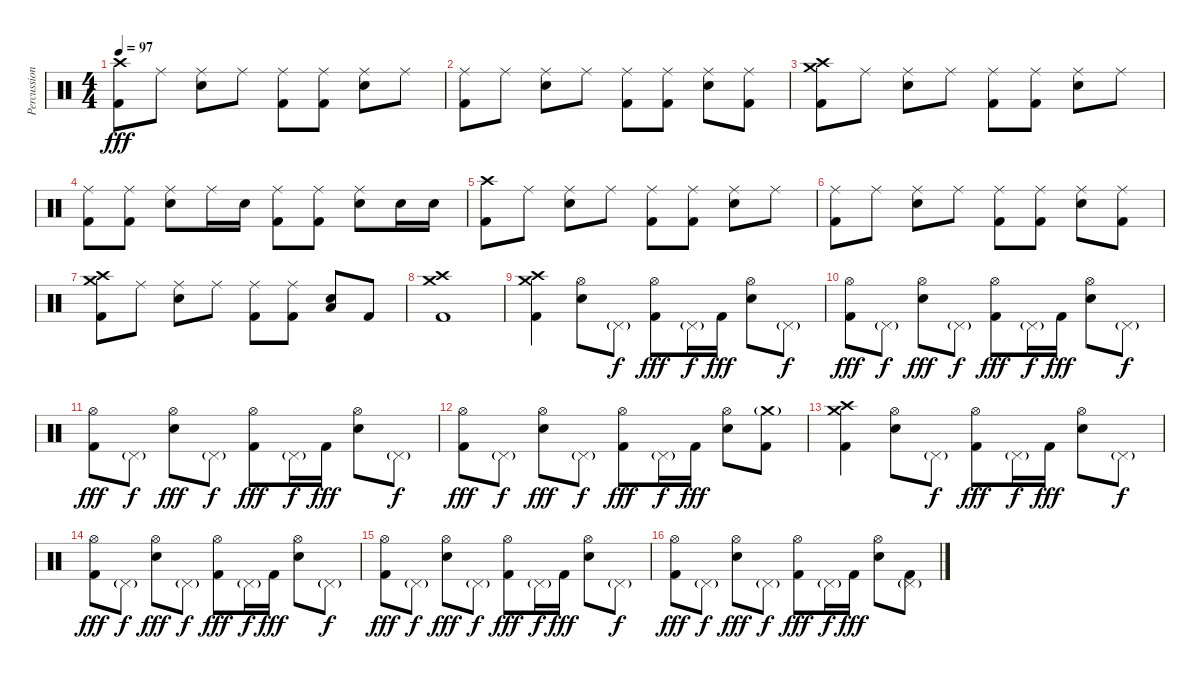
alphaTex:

\track ("Percussion" "Percussion") {instrument percussion}
\staff {score}
\articulation defaults
\ts (4 4)
\tempo 97
\clef neutral
\ks c
("Crash high (hit)" "Kick (hit) 2").8{dy fff} "Ride (middle)".8 ("Ride (middle)" "Electric Snare (hit)").8 "Ride (middle)".8 ("Ride (middle)" "Kick (hit) 2").8 ("Ride (middle)" "Kick (hit) 2").8 ("Ride (middle)" "Electric Snare (hit)").8 "Ride (middle)".8 |
("Ride (middle)" "Kick (hit) 2").8 "Ride (middle)".8 ("Ride (middle)" "Electric Snare (hit)").8 "Ride (middle)".8 ("Ride (middle)" "Kick (hit) 2").8 ("Ride (middle)" "Kick (hit) 2").8 ("Ride (middle)" "Electric Snare (hit)").8 ("Ride (middle)" "Kick (hit) 2").8 |
("Crash high (hit)" "Crash medium (hit)" "Kick (hit) 2").8 "Ride (middle)".8 ("Ride (middle)" "Electric Snare (hit)").8 "Ride (middle)".8 ("Ride (middle)" "Kick (hit) 2").8 ("Ride (middle)" "Kick (hit) 2").8 ("Ride (middle)" "Electric Snare (hit)").8 "Ride (middle)".8 |
("Ride (middle)" "Kick (hit) 2").8 ("Ride (middle)" "Kick (hit) 2").8 ("Ride (middle)" "Electric Snare (hit)").8 "Ride (middle)".16 "Electric Snare (hit)".16 ("Ride (middle)" "Kick (hit) 2").8 ("Ride (middle)" "Kick (hit) 2").8 ("Ride (middle)" "Electric Snare (hit)").8 "Electric Snare (hit)".16 "Electric Snare (hit)".16 |
("Crash high (hit)" "Kick (hit) 2").8 "Ride (middle)".8 ("Ride (middle)" "Electric Snare (hit)").8 "Ride (middle)".8 ("Ride (middle)" "Kick (hit) 2").8 ("Ride (middle)" "Kick (hit) 2").8 ("Ride (middle)" "Electric Snare (hit)").8 "Ride (middle)".8 |
("Ride (middle)" "Kick (hit) 2").8 "Ride (middle)".8 ("Ride (middle)" "Electric Snare (hit)").8 "Ride (middle)".8 ("Ride (middle)" "Kick (hit) 2").8 ("Ride (middle)" "Kick (hit) 2").8 ("Ride (middle)" "Electric Snare (hit)").8 ("Ride (middle)" "Kick (hit) 2").8 |
("Crash high (hit)" "Crash medium (hit)" "Kick (hit) 2").8 "Ride (middle)".8 ("Ride (middle)" "Electric Snare (hit)").8 "Ride (middle)".8 ("Ride (middle)" "Kick (hit) 2").8 ("Ride (middle)" "Kick (hit) 2").8 ("Electric Snare (hit)" "Low Floor Tom (hit)").8 "Kick (hit) 2".8 |
("Crash high (hit)" "Crash medium (hit)" "Kick (hit) 2").1 |
("Crash medium (hit)" "Crash high (hit)" "Kick (hit) 2").4 ("Hi-Hat (open)" "Electric Snare (hit)").8 "Pedal Hi-Hat (hit)"{g}.8{dy f} ("Hi-Hat (open)" "Kick (hit) 2").8{dy fff} "Pedal Hi-Hat (hit)"{g}.16{dy f} "Kick (hit) 2".16{dy fff} ("Hi-Hat (open)" "Electric Snare (hit)").8 "Pedal Hi-Hat (hit)"{g}.8{dy f} |
("Hi-Hat (open)" "Kick (hit) 2").8{dy fff} "Pedal Hi-Hat (hit)"{g}.8{dy f} ("Hi-Hat (open)" "Electric Snare (hit)").8{dy fff} "Pedal Hi-Hat (hit)"{g}.8{dy f} ("Hi-Hat (open)" "Kick (hit) 2").8{dy fff} "Pedal Hi-Hat (hit)"{g}.16{dy f} "Kick (hit) 2".16{dy fff} ("Hi-Hat (open)" "Electric Snare (hit)").8 "Pedal Hi-Hat (hit)"{g}.8{dy f} |
("Hi-Hat (open)" "Kick (hit) 2").8{dy fff} "Pedal Hi-Hat (hit)"{g}.8{dy f} ("Hi-Hat (open)" "Electric Snare (hit)").8{dy fff} "Pedal Hi-Hat (hit)"{g}.8{dy f} ("Hi-Hat (open)" "Kick (hit) 2").8{dy fff} "Pedal Hi-Hat (hit)"{g}.16{dy f} "Kick (hit) 2".16{dy fff} ("Hi-Hat (open)" "Electric Snare (hit)").8 "Pedal Hi-Hat (hit)"{g}.8{dy f} |
("Hi-Hat (open)" "Kick (hit) 2").8{dy fff} "Pedal Hi-Hat (hit)"{g}.8{dy f} ("Hi-Hat (open)" "Electric Snare (hit)").8{dy fff} "Pedal Hi-Hat (hit)"{g}.8{dy f} ("Hi-Hat (open)" "Kick (hit) 2").8{dy fff} "Pedal Hi-Hat (hit)"{g}.16{dy f} "Kick (hit) 2".16{dy fff} ("Hi-Hat (open)" "Electric Snare (hit)").8 ("Crash medium (hit)"{g} "Kick (hit) 2").8 |
("Crash medium (hit)" "Crash high (hit)" "Kick (hit) 2").4 ("Hi-Hat (open)" "Electric Snare (hit)").8 "Pedal Hi-Hat (hit)"{g}.8{dy f} ("Hi-Hat (open)" "Kick (hit) 2").8{dy fff} "Pedal Hi-Hat (hit)"{g}.16{dy f} "Kick (hit) 2".16{dy fff} ("Hi-Hat (open)" "Electric Snare (hit)").8 "Pedal Hi-Hat (hit)"{g}.8{dy f} |
("Hi-Hat (open)" "Kick (hit) 2").8{dy fff} "Pedal Hi-Hat (hit)"{g}.8{dy f} ("Hi-Hat (open)" "Electric Snare (hit)").8{dy fff} "Pedal Hi-Hat (hit)"{g}.8{dy f} ("Hi-Hat (open)" "Kick (hit) 2").8{dy fff} "Pedal Hi-Hat (hit)"{g}.16{dy f} "Kick (hit) 2".16{dy fff} ("Hi-Hat (open)" "Electric Snare (hit)").8 "Pedal Hi-Hat (hit)"{g}.8{dy f} |
("Hi-Hat (open)" "Kick (hit) 2").8{dy fff} "Pedal Hi-Hat (hit)"{g}.8{dy f} ("Hi-Hat (open)" "Electric Snare (hit)").8{dy fff} "Pedal Hi-Hat (hit)"{g}.8{dy f} ("Hi-Hat (open)" "Kick (hit) 2").8{dy fff} "Pedal Hi-Hat (hit)"{g}.16{dy f} "Kick (hit) 2".16{dy fff} ("Hi-Hat (open)" "Electric Snare (hit)").8 "Pedal Hi-Hat (hit)"{g}.8{dy f} |
("Hi-Hat (open)" "Kick (hit) 2").8{dy fff} "Pedal Hi-Hat (hit)"{g}.8{dy f} ("Hi-Hat (open)" "Electric Snare (hit)").8{dy fff} "Pedal Hi-Hat (hit)"{g}.8{dy f} ("Hi-Hat (open)" "Kick (hit) 2").8{dy fff} "Pedal Hi-Hat (hit)"{g}.16{dy f} "Kick (hit) 2".16{dy fff} ("Hi-Hat (open)" "Electric Snare (hit)").8 ("Pedal Hi-Hat (hit)"{g} "Kick (hit) 2").8
